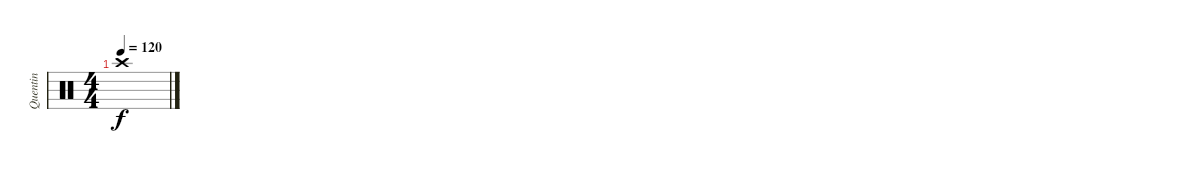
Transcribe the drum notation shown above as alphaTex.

\track ("Quentin" "Quentin") {instrument percussion}
\staff {score}
\articulation defaults
\ts (4 4)
\tempo 120
\clef neutral
\ks c "Crash high (hit)".1{dy f}
